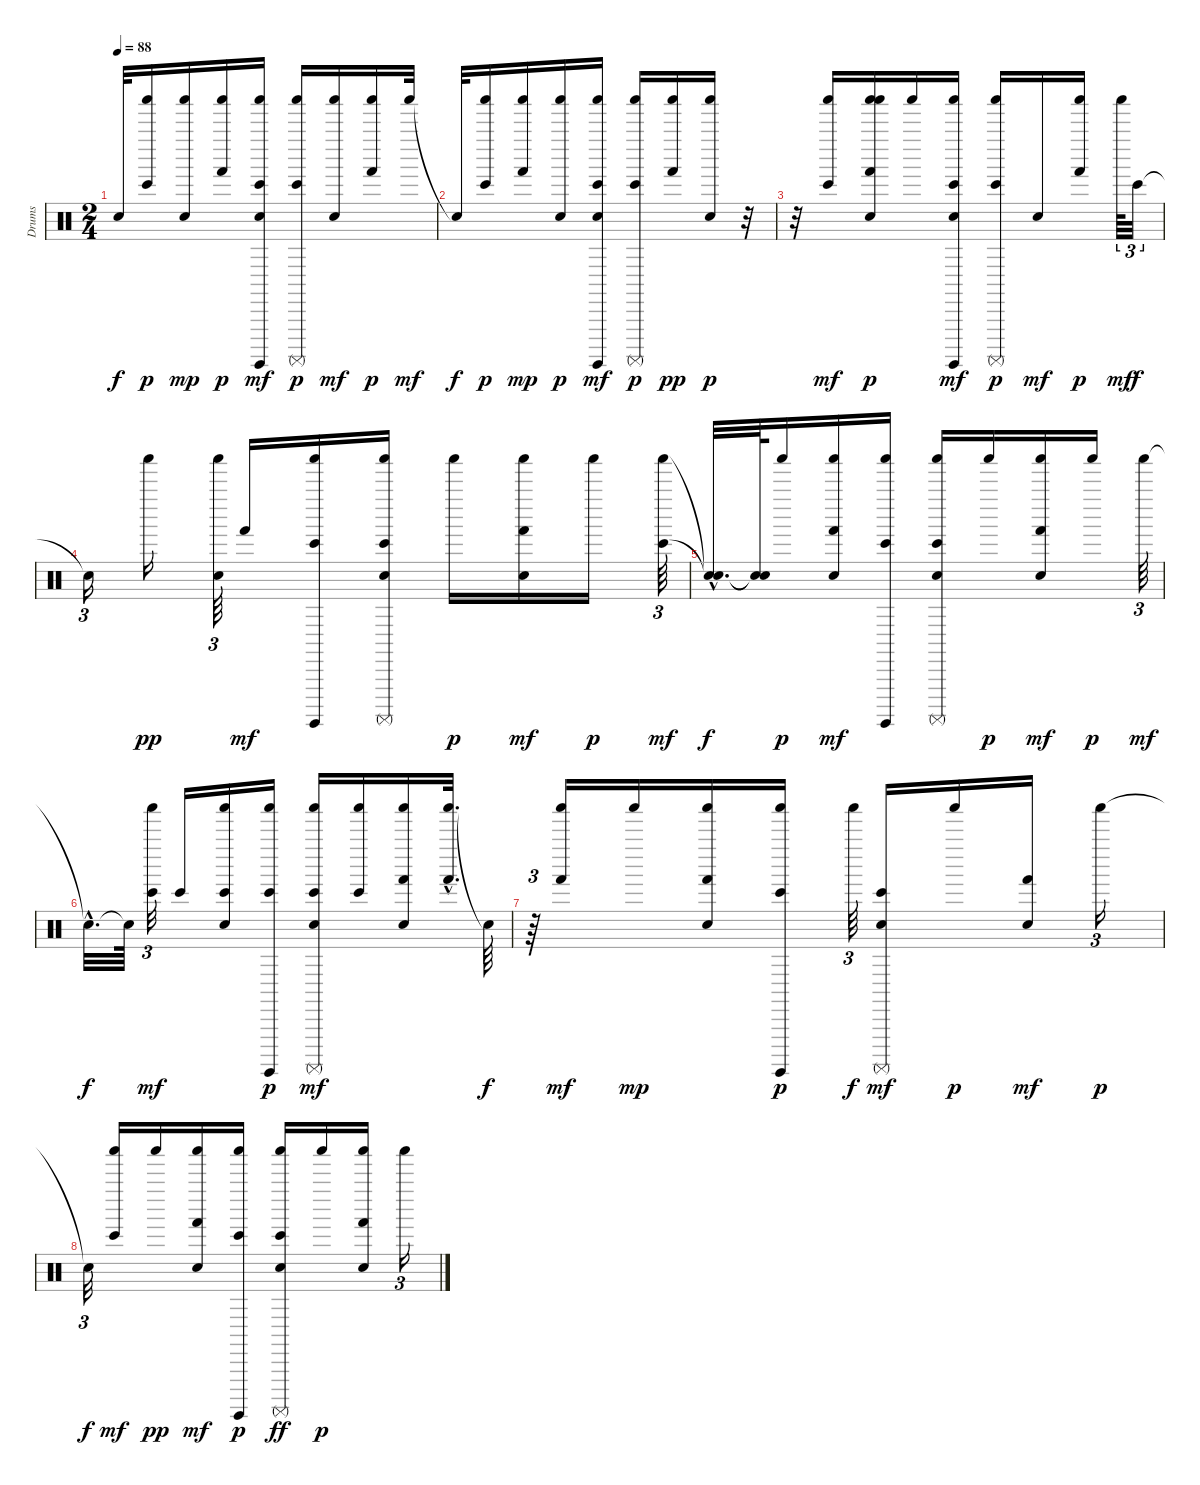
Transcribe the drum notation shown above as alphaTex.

\track ("Drums" "Drums") {instrument percussion}
\staff {score}
\articulation defaults
\ts (2 4)
\tempo 88
\clef neutral
\ks c "Snare (hit)"{t}.32{dy f}
("Bongo High (hit)" "Shaker (hit)").16{dy p} ("Shaker (hit)" "Hand Clap (hit)").16{dy mp} ("Hand (hit)" "Shaker (hit)").16{dy p} ("Surdo (hit)" "Bongo High (hit)" "Shaker (hit)" "Hand Clap (hit)").16{dy mf} ("Surdo (mute)" "Bongo High (hit)" "Shaker (hit)").16{dy p} ("Shaker (hit)" "Hand Clap (hit)").16{dy mf} ("Hand (hit)" "Shaker (hit)").16{dy p} "Shaker (hit)".32{dy mf} |
"Snare (hit)"{t}.32{dy f} ("Bongo High (hit)" "Shaker (hit)").16{dy p} ("Shaker (hit)" "Hand (hit)").16{dy mp} ("Hand Clap (hit)" "Shaker (hit)").16{dy p} ("Surdo (hit)" "Bongo High (hit)" "Shaker (hit)" "Hand Clap (hit)").16{dy mf} ("Surdo (mute)" "Bongo High (hit)" "Shaker (hit)").16{dy p} ("Shaker (hit)" "Hand (hit)").16{dy pp} ("Hand Clap (hit)" "Shaker (hit)").16{dy p} r.32 |
r.32 ("Shaker (hit)" "Bongo High (hit)").16{dy mf} ("Shaker (hit)" "Hand Clap (hit)" "Hand (hit)" "Shaker (hit)").16{dy p} "Shaker (hit)".16 ("Surdo (hit)" "Bongo High (hit)" "Shaker (hit)" "Hand Clap (hit)").16{dy mf} ("Surdo (mute)" "Bongo High (hit)" "Shaker (hit)").16{dy p} "Hand Clap (hit)".16{dy mf} ("Hand (hit)" "Shaker (hit)").16{dy p} "Shaker (hit)".64{tu (3 2) dy mf} "Bongo High (hit)".32{tu (3 2) dy f} |
"Snare (hit)"{t}.16{tu (3 2)} "Shaker (hit)".16{dy pp} ("Hand Clap (hit)" "Shaker (hit)").64{tu (3 2)} "Hand (hit)".16{dy mf} ("Shaker (hit)" "Bongo High (hit)" "Surdo (hit)").16 ("Hand Clap (hit)" "Shaker (hit)" "Surdo (mute)" "Bongo High (hit)").16 "Shaker (hit)".16{dy p} ("Hand Clap (hit)" "Shaker (hit)" "Hand (hit)").16{dy mf} "Shaker (hit)".16{dy p} ("Shaker (hit)" "Bongo High (hit)").64{tu (3 2) dy mf} |
("Snare (hit)"{hac t} "Snare (hit)"{hac t}).32{d dy f} ("Snare (hit)"{t} "Snare (hit)"{t}).64 "Shaker (hit)".16{dy p} ("Hand Clap (hit)" "Shaker (hit)" "Hand (hit)").16{dy mf} ("Shaker (hit)" "Bongo High (hit)" "Surdo (hit)").16 ("Shaker (hit)" "Hand Clap (hit)" "Bongo High (hit)" "Surdo (mute)").16 "Shaker (hit)".16{dy p} ("Shaker (hit)" "Hand (hit)" "Hand Clap (hit)").16{dy mf} "Shaker (hit)".16{dy p} "Shaker (hit)".64{tu (3 2) dy mf} |
"Snare (hit)"{hac t}.32{d dy f} "Snare (hit)"{t}.64 ("Shaker (hit)" "Bongo High (hit)").32{tu (3 2) dy mf} "Bongo High (hit)".16 ("Shaker (hit)" "Hand Clap (hit)" "Bongo High (hit)").16 ("Surdo (hit)" "Shaker (hit)" "Bongo High (hit)").16{dy p} ("Hand Clap (hit)" "Shaker (hit)" "Surdo (mute)" "Bongo High (hit)").16{dy mf} ("Shaker (hit)" "Bongo High (hit)").16 ("Shaker (hit)" "Hand Clap (hit)" "Hand (hit)").16 ("Shaker (hit)"{hac} "Hand (hit)"{hac}).32{d} "Snare (hit)"{t}.64{dy f} |
r.64{tu (3 2)} ("Shaker (hit)" "Hand (hit)").16{dy mf} "Shaker (hit)".16{dy mp} ("Hand Clap (hit)" "Shaker (hit)" "Hand (hit)").16 ("Shaker (hit)" "Surdo (hit)" "Bongo High (hit)").16{dy p} "Shaker (hit)".64{tu (3 2) dy f} ("Bongo High (hit)" "Surdo (mute)" "Hand Clap (hit)").16{dy mf} "Shaker (hit)".16{dy p} ("Hand (hit)" "Hand Clap (hit)").16{dy mf} "Shaker (hit)".16{tu (3 2) dy p} |
"Snare (hit)"{t}.32{tu (3 2) dy f} ("Shaker (hit)" "Bongo High (hit)").16{dy mf} "Shaker (hit)".16{dy pp} ("Shaker (hit)" "Hand Clap (hit)" "Hand (hit)").16{dy mf} ("Bongo High (hit)" "Shaker (hit)" "Surdo (hit)").16{dy p} ("Hand Clap (hit)" "Shaker (hit)" "Bongo High (hit)" "Surdo (mute)").16{dy ff} "Shaker (hit)".16{dy p} ("Hand (hit)" "Shaker (hit)" "Hand Clap (hit)").16 "Shaker (hit)".16{tu (3 2)}
